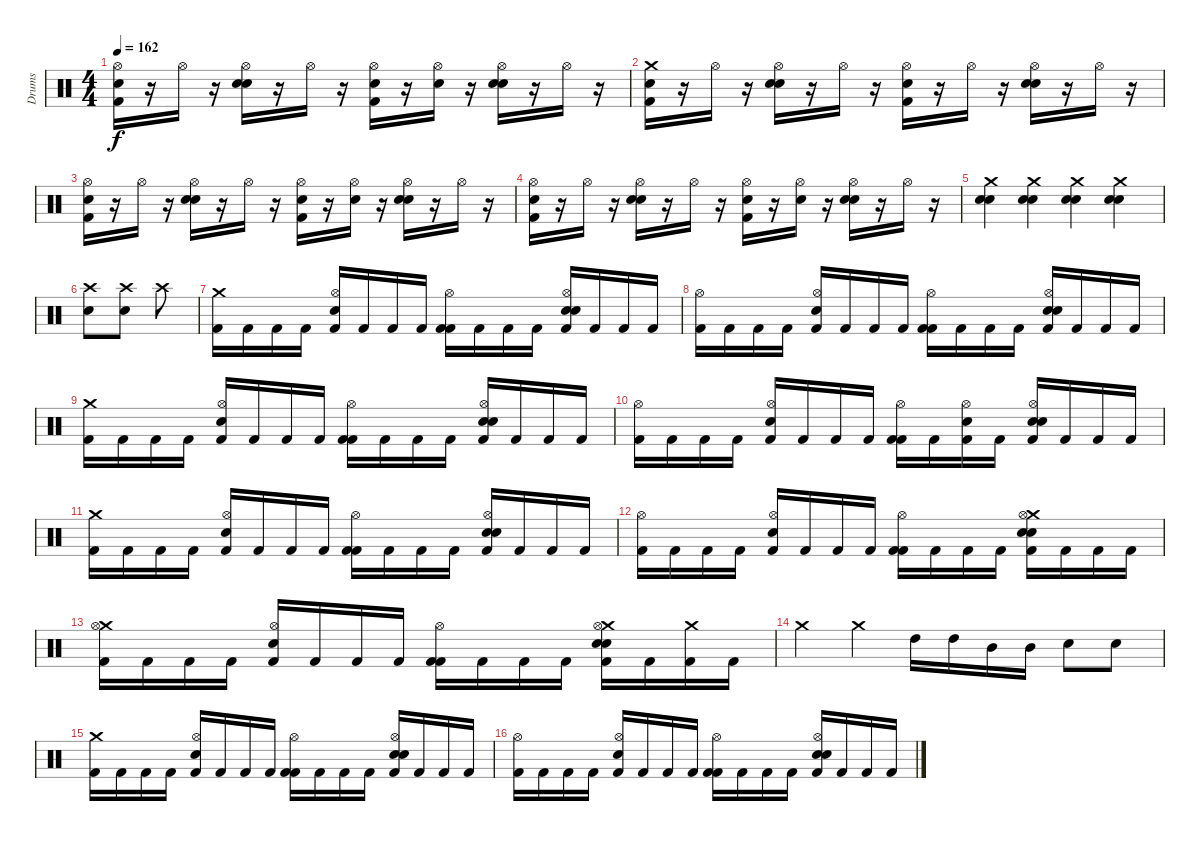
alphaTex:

\track ("Drums" "Drums") {instrument percussion}
\staff {score}
\articulation defaults
\ts (4 4)
\tempo 162
\clef neutral
\ks c
("Electric Snare (hit)" "Hi-Hat (open)" "Kick (hit) 2").16{dy f} r.16 "Hi-Hat (open)".16 r.16 ("Electric Snare (hit)" "Hi-Hat (open)" "Snare (hit) 2").16 r.16 "Hi-Hat (open)".16 r.16 ("Electric Snare (hit)" "Hi-Hat (open)" "Kick (hit) 2").16 r.16 ("Hi-Hat (open)" "Electric Snare (hit)").16 r.16 ("Electric Snare (hit)" "Hi-Hat (open)" "Snare (hit) 2").16 r.16 "Hi-Hat (open)".16 r.16 |
("Crash medium (hit)" "Electric Snare (hit)" "Kick (hit) 2").16 r.16 "Hi-Hat (open)".16 r.16 ("Electric Snare (hit)" "Hi-Hat (open)" "Snare (hit) 2").16 r.16 "Hi-Hat (open)".16 r.16 ("Electric Snare (hit)" "Hi-Hat (open)" "Kick (hit) 2").16 r.16 "Hi-Hat (open)".16 r.16 ("Electric Snare (hit)" "Hi-Hat (open)" "Snare (hit) 2").16 r.16 "Hi-Hat (open)".16 r.16 |
("Electric Snare (hit)" "Hi-Hat (open)" "Kick (hit) 2").16 r.16 "Hi-Hat (open)".16 r.16 ("Electric Snare (hit)" "Hi-Hat (open)" "Snare (hit) 2").16 r.16 "Hi-Hat (open)".16 r.16 ("Electric Snare (hit)" "Hi-Hat (open)" "Kick (hit) 2").16 r.16 ("Electric Snare (hit)" "Hi-Hat (open)").16 r.16 ("Electric Snare (hit)" "Hi-Hat (open)" "Snare (hit) 2").16 r.16 "Hi-Hat (open)".16 r.16 |
("Electric Snare (hit)" "Hi-Hat (open)" "Kick (hit) 2").16 r.16 "Hi-Hat (open)".16 r.16 ("Electric Snare (hit)" "Hi-Hat (open)" "Snare (hit) 2").16 r.16 "Hi-Hat (open)".16 r.16 ("Electric Snare (hit)" "Hi-Hat (open)" "Kick (hit) 2").16 r.16 ("Hi-Hat (open)" "Electric Snare (hit)").16 r.16 ("Electric Snare (hit)" "Hi-Hat (open)" "Snare (hit) 2").16 r.16 "Hi-Hat (open)".16 r.16 |
("Crash medium (hit)" "Electric Snare (hit)" "Electric Snare (hit)").4 ("Crash medium (hit)" "Electric Snare (hit)" "Electric Snare (hit)").4 ("Crash medium (hit)" "Electric Snare (hit)" "Electric Snare (hit)").4 ("Crash medium (hit)" "Electric Snare (hit)" "Electric Snare (hit)").4 |
("Crash high (hit)" "Electric Snare (hit)").8 ("Crash high (hit)" "Electric Snare (hit)").8 "Crash high (hit)".8 |
("Crash medium (hit)" "Kick (hit) 2").16 "Kick (hit) 2".16 "Kick (hit) 2".16 "Kick (hit) 2".16 ("Kick (hit) 2" "Electric Snare (hit)" "Hi-Hat (open)").16 "Kick (hit) 2".16 "Kick (hit) 2".16 "Kick (hit) 2".16 ("Kick (hit) 2" "Hi-Hat (open)" "Kick (hit) 2").16 "Kick (hit) 2".16 "Kick (hit) 2".16 "Kick (hit) 2".16 ("Kick (hit) 2" "Electric Snare (hit)" "Hi-Hat (open)" "Snare (hit) 2").16 "Kick (hit) 2".16 "Kick (hit) 2".16 "Kick (hit) 2".16 |
("Hi-Hat (open)" "Kick (hit) 2").16 "Kick (hit) 2".16 "Kick (hit) 2".16 "Kick (hit) 2".16 ("Kick (hit) 2" "Electric Snare (hit)" "Hi-Hat (open)").16 "Kick (hit) 2".16 "Kick (hit) 2".16 "Kick (hit) 2".16 ("Kick (hit) 2" "Hi-Hat (open)" "Kick (hit) 2").16 "Kick (hit) 2".16 "Kick (hit) 2".16 "Kick (hit) 2".16 ("Kick (hit) 2" "Electric Snare (hit)" "Hi-Hat (open)" "Snare (hit) 2").16 "Kick (hit) 2".16 "Kick (hit) 2".16 "Kick (hit) 2".16 |
("Crash medium (hit)" "Kick (hit) 2").16 "Kick (hit) 2".16 "Kick (hit) 2".16 "Kick (hit) 2".16 ("Kick (hit) 2" "Electric Snare (hit)" "Hi-Hat (open)").16 "Kick (hit) 2".16 "Kick (hit) 2".16 "Kick (hit) 2".16 ("Kick (hit) 2" "Hi-Hat (open)" "Kick (hit) 2").16 "Kick (hit) 2".16 "Kick (hit) 2".16 "Kick (hit) 2".16 ("Kick (hit) 2" "Electric Snare (hit)" "Hi-Hat (open)" "Snare (hit) 2").16 "Kick (hit) 2".16 "Kick (hit) 2".16 "Kick (hit) 2".16 |
("Hi-Hat (open)" "Kick (hit) 2").16 "Kick (hit) 2".16 "Kick (hit) 2".16 "Kick (hit) 2".16 ("Kick (hit) 2" "Electric Snare (hit)" "Hi-Hat (open)").16 "Kick (hit) 2".16 "Kick (hit) 2".16 "Kick (hit) 2".16 ("Kick (hit) 2" "Hi-Hat (open)" "Kick (hit) 2").16 "Kick (hit) 2".16 ("Kick (hit) 2" "Electric Snare (hit)" "Hi-Hat (open)").16 "Kick (hit) 2".16 ("Kick (hit) 2" "Electric Snare (hit)" "Hi-Hat (open)" "Snare (hit) 2").16 "Kick (hit) 2".16 "Kick (hit) 2".16 "Kick (hit) 2".16 |
("Crash medium (hit)" "Kick (hit) 2").16 "Kick (hit) 2".16 "Kick (hit) 2".16 "Kick (hit) 2".16 ("Kick (hit) 2" "Electric Snare (hit)" "Hi-Hat (open)").16 "Kick (hit) 2".16 "Kick (hit) 2".16 "Kick (hit) 2".16 ("Kick (hit) 2" "Hi-Hat (open)" "Kick (hit) 2").16 "Kick (hit) 2".16 "Kick (hit) 2".16 "Kick (hit) 2".16 ("Kick (hit) 2" "Electric Snare (hit)" "Hi-Hat (open)" "Snare (hit) 2").16 "Kick (hit) 2".16 "Kick (hit) 2".16 "Kick (hit) 2".16 |
("Hi-Hat (open)" "Kick (hit) 2").16 "Kick (hit) 2".16 "Kick (hit) 2".16 "Kick (hit) 2".16 ("Kick (hit) 2" "Electric Snare (hit)" "Hi-Hat (open)").16 "Kick (hit) 2".16 "Kick (hit) 2".16 "Kick (hit) 2".16 ("Kick (hit) 2" "Hi-Hat (open)" "Kick (hit) 2").16 "Kick (hit) 2".16 "Kick (hit) 2".16 "Kick (hit) 2".16 ("Crash medium (hit)" "Kick (hit) 2" "Electric Snare (hit)" "Hi-Hat (open)" "Snare (hit) 2").16 "Kick (hit) 2".16 "Kick (hit) 2".16 "Kick (hit) 2".16 |
("Crash medium (hit)" "Hi-Hat (open)" "Kick (hit) 2").16 "Kick (hit) 2".16 "Kick (hit) 2".16 "Kick (hit) 2".16 ("Kick (hit) 2" "Electric Snare (hit)" "Hi-Hat (open)").16 "Kick (hit) 2".16 "Kick (hit) 2".16 "Kick (hit) 2".16 ("Kick (hit) 2" "Hi-Hat (open)" "Kick (hit) 2").16 "Kick (hit) 2".16 "Kick (hit) 2".16 "Kick (hit) 2".16 ("Crash medium (hit)" "Kick (hit) 2" "Electric Snare (hit)" "Hi-Hat (open)" "Snare (hit) 2").16 "Kick (hit) 2".16 ("Crash medium (hit)" "Kick (hit) 2").16 "Kick (hit) 2".16 |
"Crash medium (hit)".4 "Crash medium (hit)".4 "High Tom (hit)".16 "High Tom (hit)".16 "Mid Tom (hit)".16 "Mid Tom (hit)".16 "Electric Snare (hit)".8 "Electric Snare (hit)".8 |
("Crash medium (hit)" "Kick (hit) 2").16 "Kick (hit) 2".16 "Kick (hit) 2".16 "Kick (hit) 2".16 ("Kick (hit) 2" "Electric Snare (hit)" "Hi-Hat (open)").16 "Kick (hit) 2".16 "Kick (hit) 2".16 "Kick (hit) 2".16 ("Kick (hit) 2" "Hi-Hat (open)" "Kick (hit) 2").16 "Kick (hit) 2".16 "Kick (hit) 2".16 "Kick (hit) 2".16 ("Kick (hit) 2" "Electric Snare (hit)" "Hi-Hat (open)" "Snare (hit) 2").16 "Kick (hit) 2".16 "Kick (hit) 2".16 "Kick (hit) 2".16 |
("Hi-Hat (open)" "Kick (hit) 2").16 "Kick (hit) 2".16 "Kick (hit) 2".16 "Kick (hit) 2".16 ("Kick (hit) 2" "Electric Snare (hit)" "Hi-Hat (open)").16 "Kick (hit) 2".16 "Kick (hit) 2".16 "Kick (hit) 2".16 ("Kick (hit) 2" "Hi-Hat (open)" "Kick (hit) 2").16 "Kick (hit) 2".16 "Kick (hit) 2".16 "Kick (hit) 2".16 ("Kick (hit) 2" "Electric Snare (hit)" "Hi-Hat (open)" "Snare (hit) 2").16 "Kick (hit) 2".16 "Kick (hit) 2".16 "Kick (hit) 2".16
